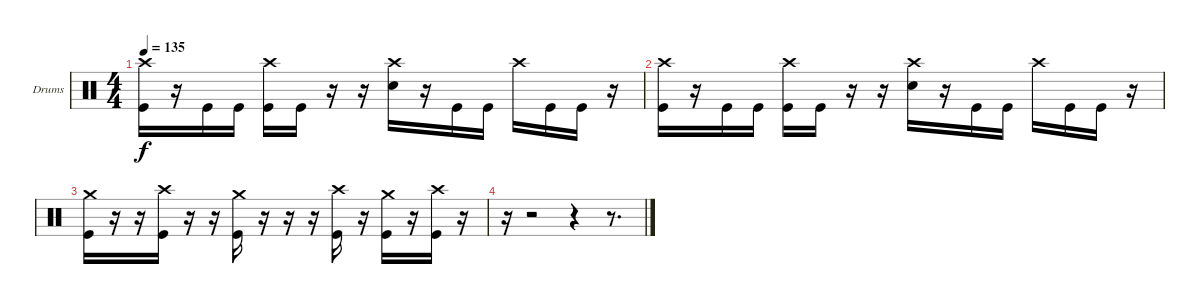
\bracketExtendMode groupsimilarinstruments
\firstSystemTrackNameOrientation horizontal
\otherSystemsTrackNameOrientation horizontal
\track ("Drumkit" "Drums") {instrument percussion}
\staff {score}
\articulation defaults
\ts (4 4)
\tempo 135
\clef neutral
\ks c
("Crash high (hit)" "Kick (hit)").16{dy f} r.16 "Kick (hit)".16 "Kick (hit)".16 ("Crash high (hit)" "Kick (hit)").16 "Kick (hit)".16 r.16 r.16 ("Crash high (hit)" "Snare (hit) 2").16 r.16 "Kick (hit)".16 "Kick (hit)".16 "Crash high (hit)".16 "Kick (hit)".16 "Kick (hit)".16 r.16 |
("Crash high (hit)" "Kick (hit)").16 r.16 "Kick (hit)".16 "Kick (hit)".16 ("Crash high (hit)" "Kick (hit)").16 "Kick (hit)".16 r.16 r.16 ("Crash high (hit)" "Snare (hit) 2").16 r.16 "Kick (hit)".16 "Kick (hit)".16 "Crash high (hit)".16 "Kick (hit)".16 "Kick (hit)".16 r.16 |
("Crash medium (hit)" "Kick (hit)").16 r.16 r.16 ("Crash high (hit)" "Kick (hit)").16 r.16 r.16 ("Crash medium (hit)" "Kick (hit)").16 r.16 r.16 r.16 ("Crash high (hit)" "Kick (hit)").16 r.16 ("Crash medium (hit)" "Kick (hit)").16 r.16 ("Crash high (hit)" "Kick (hit)").16 r.16 |
r.16 r.2 r.4 r.8{d}
